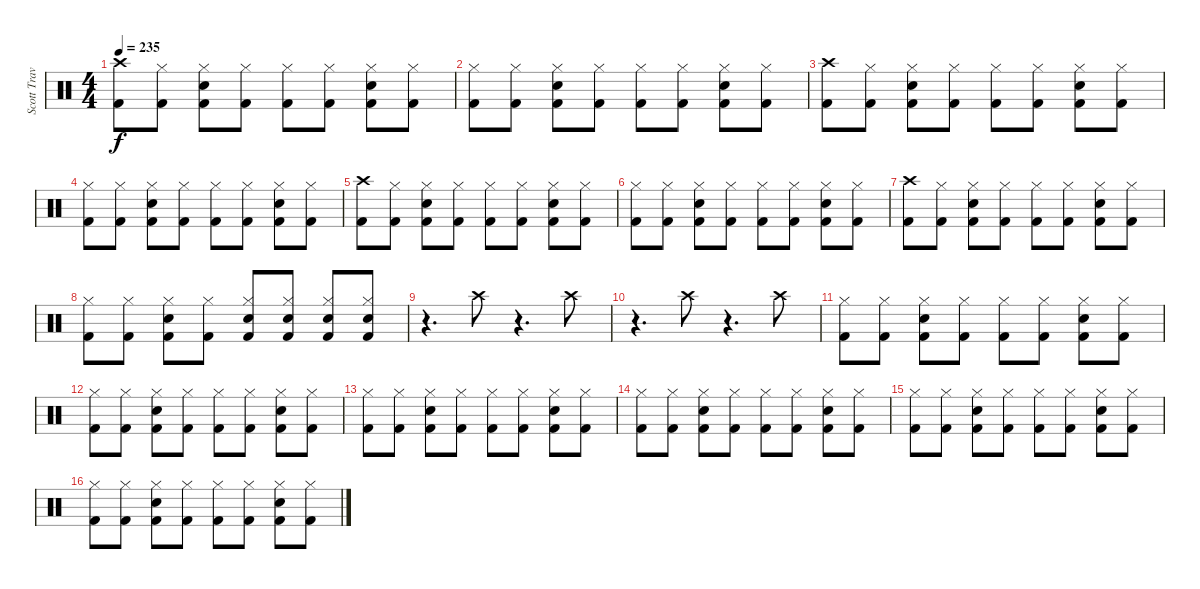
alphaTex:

\track ("Scott Travis" "Scott Trav") {instrument percussion}
\staff {score}
\articulation defaults
\ts (4 4)
\tempo 235
\clef neutral
\ks c
("Kick (hit) 2" "Crash high (hit)").8{dy f} ("Kick (hit) 2" "Hi-Hat (closed)").8 ("Kick (hit) 2" "Snare (hit) 2" "Hi-Hat (closed)").8 ("Kick (hit) 2" "Hi-Hat (closed)").8 ("Kick (hit) 2" "Hi-Hat (closed)").8 ("Kick (hit) 2" "Hi-Hat (closed)").8 ("Kick (hit) 2" "Hi-Hat (closed)" "Snare (hit) 2").8 ("Kick (hit) 2" "Hi-Hat (closed)").8 |
("Kick (hit) 2" "Hi-Hat (closed)").8 ("Kick (hit) 2" "Hi-Hat (closed)").8 ("Kick (hit) 2" "Snare (hit) 2" "Hi-Hat (closed)").8 ("Kick (hit) 2" "Hi-Hat (closed)").8 ("Kick (hit) 2" "Hi-Hat (closed)").8 ("Kick (hit) 2" "Hi-Hat (closed)").8 ("Kick (hit) 2" "Hi-Hat (closed)" "Snare (hit) 2").8 ("Kick (hit) 2" "Hi-Hat (closed)").8 |
("Kick (hit) 2" "Crash high (hit)").8 ("Kick (hit) 2" "Hi-Hat (closed)").8 ("Kick (hit) 2" "Snare (hit) 2" "Hi-Hat (closed)").8 ("Kick (hit) 2" "Hi-Hat (closed)").8 ("Kick (hit) 2" "Hi-Hat (closed)").8 ("Kick (hit) 2" "Hi-Hat (closed)").8 ("Kick (hit) 2" "Hi-Hat (closed)" "Snare (hit) 2").8 ("Kick (hit) 2" "Hi-Hat (closed)").8 |
("Kick (hit) 2" "Hi-Hat (closed)").8 ("Kick (hit) 2" "Hi-Hat (closed)").8 ("Kick (hit) 2" "Snare (hit) 2" "Hi-Hat (closed)").8 ("Kick (hit) 2" "Hi-Hat (closed)").8 ("Kick (hit) 2" "Hi-Hat (closed)").8 ("Kick (hit) 2" "Hi-Hat (closed)").8 ("Kick (hit) 2" "Hi-Hat (closed)" "Snare (hit) 2").8 ("Kick (hit) 2" "Hi-Hat (closed)").8 |
("Kick (hit) 2" "Crash high (hit)").8 ("Kick (hit) 2" "Hi-Hat (closed)").8 ("Kick (hit) 2" "Snare (hit) 2" "Hi-Hat (closed)").8 ("Kick (hit) 2" "Hi-Hat (closed)").8 ("Kick (hit) 2" "Hi-Hat (closed)").8 ("Kick (hit) 2" "Hi-Hat (closed)").8 ("Kick (hit) 2" "Hi-Hat (closed)" "Snare (hit) 2").8 ("Kick (hit) 2" "Hi-Hat (closed)").8 |
("Kick (hit) 2" "Hi-Hat (closed)").8 ("Kick (hit) 2" "Hi-Hat (closed)").8 ("Kick (hit) 2" "Snare (hit) 2" "Hi-Hat (closed)").8 ("Kick (hit) 2" "Hi-Hat (closed)").8 ("Kick (hit) 2" "Hi-Hat (closed)").8 ("Kick (hit) 2" "Hi-Hat (closed)").8 ("Kick (hit) 2" "Hi-Hat (closed)" "Snare (hit) 2").8 ("Kick (hit) 2" "Hi-Hat (closed)").8 |
("Kick (hit) 2" "Crash high (hit)").8 ("Kick (hit) 2" "Hi-Hat (closed)").8 ("Kick (hit) 2" "Snare (hit) 2" "Hi-Hat (closed)").8 ("Kick (hit) 2" "Hi-Hat (closed)").8 ("Kick (hit) 2" "Hi-Hat (closed)").8 ("Kick (hit) 2" "Hi-Hat (closed)").8 ("Kick (hit) 2" "Hi-Hat (closed)" "Snare (hit) 2").8 ("Kick (hit) 2" "Hi-Hat (closed)").8 |
("Kick (hit) 2" "Hi-Hat (closed)").8 ("Kick (hit) 2" "Hi-Hat (closed)").8 ("Kick (hit) 2" "Snare (hit) 2" "Hi-Hat (closed)").8 ("Kick (hit) 2" "Hi-Hat (closed)").8 ("Kick (hit) 2" "Hi-Hat (closed)" "Snare (hit) 2").8 ("Kick (hit) 2" "Hi-Hat (closed)" "Snare (hit) 2").8 ("Kick (hit) 2" "Hi-Hat (closed)" "Snare (hit) 2").8 ("Kick (hit) 2" "Hi-Hat (closed)" "Snare (hit) 2").8 |
r.4{d} "Crash high (hit)".8 r.4{d} "Crash high (hit)".8 |
r.4{d} "Crash high (hit)".8 r.4{d} "Crash high (hit)".8 |
("Kick (hit) 2" "Hi-Hat (closed)").8 ("Kick (hit) 2" "Hi-Hat (closed)").8 ("Kick (hit) 2" "Snare (hit) 2" "Hi-Hat (closed)").8 ("Kick (hit) 2" "Hi-Hat (closed)").8 ("Kick (hit) 2" "Hi-Hat (closed)").8 ("Kick (hit) 2" "Hi-Hat (closed)").8 ("Kick (hit) 2" "Hi-Hat (closed)" "Snare (hit) 2").8 ("Kick (hit) 2" "Hi-Hat (closed)").8 |
("Kick (hit) 2" "Hi-Hat (closed)").8 ("Kick (hit) 2" "Hi-Hat (closed)").8 ("Kick (hit) 2" "Snare (hit) 2" "Hi-Hat (closed)").8 ("Kick (hit) 2" "Hi-Hat (closed)").8 ("Kick (hit) 2" "Hi-Hat (closed)").8 ("Kick (hit) 2" "Hi-Hat (closed)").8 ("Kick (hit) 2" "Hi-Hat (closed)" "Snare (hit) 2").8 ("Kick (hit) 2" "Hi-Hat (closed)").8 |
("Kick (hit) 2" "Hi-Hat (closed)").8 ("Kick (hit) 2" "Hi-Hat (closed)").8 ("Kick (hit) 2" "Snare (hit) 2" "Hi-Hat (closed)").8 ("Kick (hit) 2" "Hi-Hat (closed)").8 ("Kick (hit) 2" "Hi-Hat (closed)").8 ("Kick (hit) 2" "Hi-Hat (closed)").8 ("Kick (hit) 2" "Hi-Hat (closed)" "Snare (hit) 2").8 ("Kick (hit) 2" "Hi-Hat (closed)").8 |
("Kick (hit) 2" "Hi-Hat (closed)").8 ("Kick (hit) 2" "Hi-Hat (closed)").8 ("Kick (hit) 2" "Snare (hit) 2" "Hi-Hat (closed)").8 ("Kick (hit) 2" "Hi-Hat (closed)").8 ("Kick (hit) 2" "Hi-Hat (closed)").8 ("Kick (hit) 2" "Hi-Hat (closed)").8 ("Kick (hit) 2" "Hi-Hat (closed)" "Snare (hit) 2").8 ("Kick (hit) 2" "Hi-Hat (closed)").8 |
("Kick (hit) 2" "Hi-Hat (closed)").8 ("Kick (hit) 2" "Hi-Hat (closed)").8 ("Kick (hit) 2" "Snare (hit) 2" "Hi-Hat (closed)").8 ("Kick (hit) 2" "Hi-Hat (closed)").8 ("Kick (hit) 2" "Hi-Hat (closed)").8 ("Kick (hit) 2" "Hi-Hat (closed)").8 ("Kick (hit) 2" "Hi-Hat (closed)" "Snare (hit) 2").8 ("Kick (hit) 2" "Hi-Hat (closed)").8 |
("Kick (hit) 2" "Hi-Hat (closed)").8 ("Kick (hit) 2" "Hi-Hat (closed)").8 ("Kick (hit) 2" "Snare (hit) 2" "Hi-Hat (closed)").8 ("Kick (hit) 2" "Hi-Hat (closed)").8 ("Kick (hit) 2" "Hi-Hat (closed)").8 ("Kick (hit) 2" "Hi-Hat (closed)").8 ("Kick (hit) 2" "Hi-Hat (closed)" "Snare (hit) 2").8 ("Kick (hit) 2" "Hi-Hat (closed)").8
